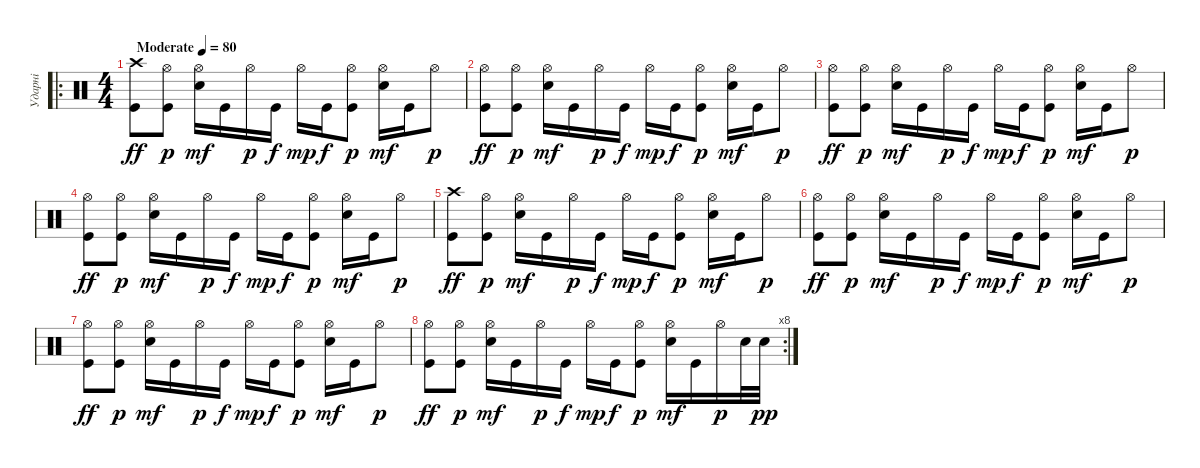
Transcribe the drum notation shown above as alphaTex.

\track ("Ударні" "Ударні") {instrument percussion}
\staff {score}
\articulation defaults
\ro
\ts (4 4)
\tempo (80 "Moderate")
\clef neutral
\ks c
("Crash high (hit)" "Kick (hit)").8{dy ff} ("Hi-Hat (open)" "Kick (hit)").8{dy p} ("Hi-Hat (open)" "Snare (hit) 2").16{dy mf} "Kick (hit)".16 "Hi-Hat (open)".16{dy p} "Kick (hit)".16{dy f} "Hi-Hat (open)".16{dy mp} "Kick (hit)".16{dy f} ("Hi-Hat (open)" "Kick (hit)").8{dy p} ("Hi-Hat (open)" "Snare (hit) 2").16{dy mf} "Kick (hit)".16 "Hi-Hat (open)".8{dy p} |
("Hi-Hat (open)" "Kick (hit)").8{dy ff} ("Hi-Hat (open)" "Kick (hit)").8{dy p} ("Hi-Hat (open)" "Snare (hit) 2").16{dy mf} "Kick (hit)".16 "Hi-Hat (open)".16{dy p} "Kick (hit)".16{dy f} "Hi-Hat (open)".16{dy mp} "Kick (hit)".16{dy f} ("Hi-Hat (open)" "Kick (hit)").8{dy p} ("Hi-Hat (open)" "Snare (hit) 2").16{dy mf} "Kick (hit)".16 "Hi-Hat (open)".8{dy p} |
("Hi-Hat (open)" "Kick (hit)").8{dy ff} ("Hi-Hat (open)" "Kick (hit)").8{dy p} ("Hi-Hat (open)" "Snare (hit) 2").16{dy mf} "Kick (hit)".16 "Hi-Hat (open)".16{dy p} "Kick (hit)".16{dy f} "Hi-Hat (open)".16{dy mp} "Kick (hit)".16{dy f} ("Hi-Hat (open)" "Kick (hit)").8{dy p} ("Hi-Hat (open)" "Snare (hit) 2").16{dy mf} "Kick (hit)".16 "Hi-Hat (open)".8{dy p} |
("Hi-Hat (open)" "Kick (hit)").8{dy ff} ("Hi-Hat (open)" "Kick (hit)").8{dy p} ("Hi-Hat (open)" "Snare (hit) 2").16{dy mf} "Kick (hit)".16 "Hi-Hat (open)".16{dy p} "Kick (hit)".16{dy f} "Hi-Hat (open)".16{dy mp} "Kick (hit)".16{dy f} ("Hi-Hat (open)" "Kick (hit)").8{dy p} ("Hi-Hat (open)" "Snare (hit) 2").16{dy mf} "Kick (hit)".16 "Hi-Hat (open)".8{dy p} |
("Crash high (hit)" "Kick (hit)").8{dy ff} ("Hi-Hat (open)" "Kick (hit)").8{dy p} ("Hi-Hat (open)" "Snare (hit) 2").16{dy mf} "Kick (hit)".16 "Hi-Hat (open)".16{dy p} "Kick (hit)".16{dy f} "Hi-Hat (open)".16{dy mp} "Kick (hit)".16{dy f} ("Hi-Hat (open)" "Kick (hit)").8{dy p} ("Hi-Hat (open)" "Snare (hit) 2").16{dy mf} "Kick (hit)".16 "Hi-Hat (open)".8{dy p} |
("Hi-Hat (open)" "Kick (hit)").8{dy ff} ("Hi-Hat (open)" "Kick (hit)").8{dy p} ("Hi-Hat (open)" "Snare (hit) 2").16{dy mf} "Kick (hit)".16 "Hi-Hat (open)".16{dy p} "Kick (hit)".16{dy f} "Hi-Hat (open)".16{dy mp} "Kick (hit)".16{dy f} ("Hi-Hat (open)" "Kick (hit)").8{dy p} ("Hi-Hat (open)" "Snare (hit) 2").16{dy mf} "Kick (hit)".16 "Hi-Hat (open)".8{dy p} |
("Hi-Hat (open)" "Kick (hit)").8{dy ff} ("Hi-Hat (open)" "Kick (hit)").8{dy p} ("Hi-Hat (open)" "Snare (hit) 2").16{dy mf} "Kick (hit)".16 "Hi-Hat (open)".16{dy p} "Kick (hit)".16{dy f} "Hi-Hat (open)".16{dy mp} "Kick (hit)".16{dy f} ("Hi-Hat (open)" "Kick (hit)").8{dy p} ("Hi-Hat (open)" "Snare (hit) 2").16{dy mf} "Kick (hit)".16 "Hi-Hat (open)".8{dy p} |
\rc 8
("Hi-Hat (open)" "Kick (hit)").8{dy ff} ("Hi-Hat (open)" "Kick (hit)").8{dy p} ("Hi-Hat (open)" "Snare (hit) 2").16{dy mf} "Kick (hit)".16 "Hi-Hat (open)".16{dy p} "Kick (hit)".16{dy f} "Hi-Hat (open)".16{dy mp} "Kick (hit)".16{dy f} ("Hi-Hat (open)" "Kick (hit)").8{dy p} ("Hi-Hat (open)" "Snare (hit) 2").16{dy mf} "Kick (hit)".16 "Hi-Hat (open)".16{dy p} "Snare (hit) 2".32 "Snare (hit) 2".32{dy pp}
